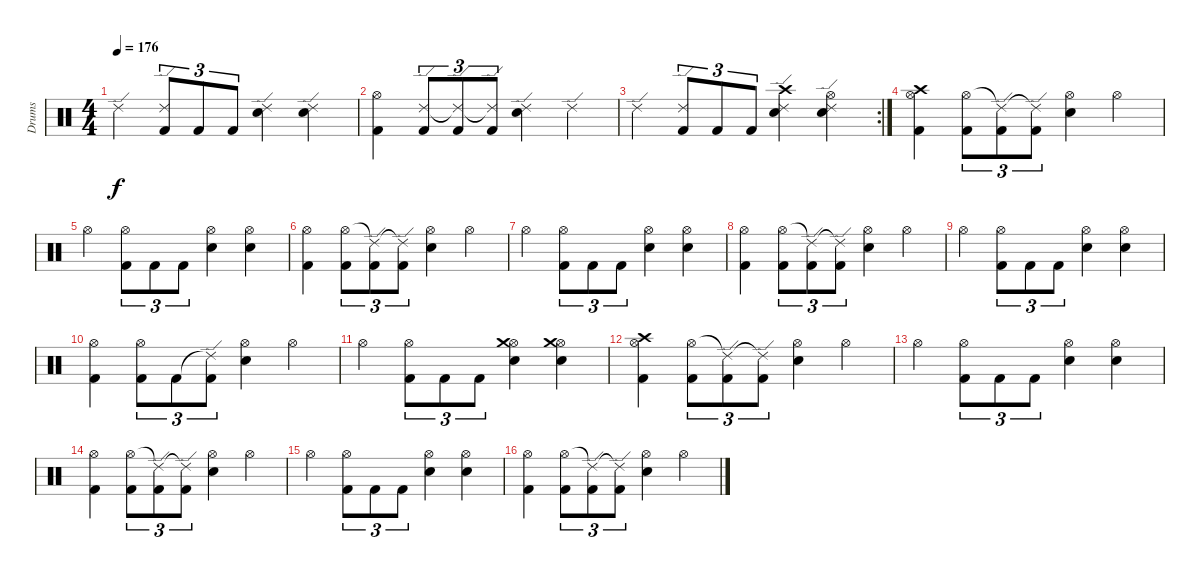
\track ("Drums" "Drums") {instrument percussion}
\staff {score}
\articulation defaults
\ts (4 4)
\tempo 176
\clef neutral
\ks c "Ride (edge) 2".4{dy f}
("Ride (edge) 2" "Kick (hit) 2").8{tu (3 2)} "Kick (hit) 2".8{tu (3 2)} "Kick (hit) 2".8{tu (3 2)} ("Ride (edge) 2" "Electric Snare (hit)").4 ("Ride (edge) 2" "Electric Snare (hit)").4 |
("Hi-Hat (open)" "Kick (hit) 2").4 ("Ride (edge) 2" "Kick (hit) 2").8{tu (3 2)} ("Ride (edge) 2"{t} "Kick (hit) 2").8{tu (3 2)} ("Ride (edge) 2"{t} "Kick (hit) 2").8{tu (3 2)} ("Ride (edge) 2" "Electric Snare (hit)").4 "Ride (edge) 2".4 |
\rc 2 "Ride (edge) 2".4
("Ride (edge) 2" "Kick (hit) 2").8{tu (3 2)} "Kick (hit) 2".8{tu (3 2)} "Kick (hit) 2".8{tu (3 2)} ("Ride (edge) 2" "Electric Snare (hit)" "Crash high (hit)").4 ("Ride (edge) 2" "Electric Snare (hit)" "Hi-Hat (open)").4 |
("Hi-Hat (open)" "Kick (hit) 2" "Crash high (hit)").4 ("Hi-Hat (open)" "Kick (hit) 2").8{tu (3 2)} ("Ride (edge) 2"{t} "Kick (hit) 2").8{tu (3 2)} ("Ride (edge) 2"{t} "Kick (hit) 2").8{tu (3 2)} ("Hi-Hat (open)" "Snare (hit) 2").4 "Hi-Hat (open)".4 |
"Hi-Hat (open)".4 ("Hi-Hat (open)" "Kick (hit) 2").8{tu (3 2)} "Kick (hit) 2".8{tu (3 2)} "Kick (hit) 2".8{tu (3 2)} ("Hi-Hat (open)" "Snare (hit) 2").4 ("Hi-Hat (open)" "Snare (hit) 2").4 |
("Hi-Hat (open)" "Kick (hit) 2").4 ("Hi-Hat (open)" "Kick (hit) 2").8{tu (3 2)} ("Ride (edge) 2"{t} "Kick (hit) 2").8{tu (3 2)} ("Ride (edge) 2"{t} "Kick (hit) 2").8{tu (3 2)} ("Hi-Hat (open)" "Snare (hit) 2").4 "Hi-Hat (open)".4 |
"Hi-Hat (open)".4 ("Hi-Hat (open)" "Kick (hit) 2").8{tu (3 2)} "Kick (hit) 2".8{tu (3 2)} "Kick (hit) 2".8{tu (3 2)} ("Hi-Hat (open)" "Snare (hit) 2").4 ("Hi-Hat (open)" "Snare (hit) 2").4 |
("Hi-Hat (open)" "Kick (hit) 2").4 ("Hi-Hat (open)" "Kick (hit) 2").8{tu (3 2)} ("Ride (edge) 2"{t} "Kick (hit) 2").8{tu (3 2)} ("Ride (edge) 2"{t} "Kick (hit) 2").8{tu (3 2)} ("Hi-Hat (open)" "Snare (hit) 2").4 "Hi-Hat (open)".4 |
"Hi-Hat (open)".4 ("Hi-Hat (open)" "Kick (hit) 2").8{tu (3 2)} "Kick (hit) 2".8{tu (3 2)} "Kick (hit) 2".8{tu (3 2)} ("Hi-Hat (open)" "Snare (hit) 2").4 ("Hi-Hat (open)" "Snare (hit) 2").4 |
("Hi-Hat (open)" "Kick (hit) 2").4 ("Hi-Hat (open)" "Kick (hit) 2").8{tu (3 2)} "Kick (hit) 2".8{tu (3 2)} ("Ride (edge) 2"{t} "Kick (hit) 2").8{tu (3 2)} ("Hi-Hat (open)" "Snare (hit) 2").4 "Hi-Hat (open)".4 |
"Hi-Hat (open)".4 ("Hi-Hat (open)" "Kick (hit) 2").8{tu (3 2)} "Kick (hit) 2".8{tu (3 2)} "Kick (hit) 2".8{tu (3 2)} ("Hi-Hat (open)" "Snare (hit) 2" "Crash medium (hit)").4 ("Hi-Hat (open)" "Snare (hit) 2" "Crash medium (hit)").4 |
("Hi-Hat (open)" "Kick (hit) 2" "Crash high (hit)").4 ("Hi-Hat (open)" "Kick (hit) 2").8{tu (3 2)} ("Ride (edge) 2"{t} "Kick (hit) 2").8{tu (3 2)} ("Ride (edge) 2"{t} "Kick (hit) 2").8{tu (3 2)} ("Hi-Hat (open)" "Snare (hit) 2").4 "Hi-Hat (open)".4 |
"Hi-Hat (open)".4 ("Hi-Hat (open)" "Kick (hit) 2").8{tu (3 2)} "Kick (hit) 2".8{tu (3 2)} "Kick (hit) 2".8{tu (3 2)} ("Hi-Hat (open)" "Snare (hit) 2").4 ("Hi-Hat (open)" "Snare (hit) 2").4 |
("Hi-Hat (open)" "Kick (hit) 2").4 ("Hi-Hat (open)" "Kick (hit) 2").8{tu (3 2)} ("Ride (edge) 2"{t} "Kick (hit) 2").8{tu (3 2)} ("Ride (edge) 2"{t} "Kick (hit) 2").8{tu (3 2)} ("Hi-Hat (open)" "Snare (hit) 2").4 "Hi-Hat (open)".4 |
"Hi-Hat (open)".4 ("Hi-Hat (open)" "Kick (hit) 2").8{tu (3 2)} "Kick (hit) 2".8{tu (3 2)} "Kick (hit) 2".8{tu (3 2)} ("Hi-Hat (open)" "Snare (hit) 2").4 ("Hi-Hat (open)" "Snare (hit) 2").4 |
("Hi-Hat (open)" "Kick (hit) 2").4 ("Hi-Hat (open)" "Kick (hit) 2").8{tu (3 2)} ("Ride (edge) 2"{t} "Kick (hit) 2").8{tu (3 2)} ("Ride (edge) 2"{t} "Kick (hit) 2").8{tu (3 2)} ("Hi-Hat (open)" "Snare (hit) 2").4 "Hi-Hat (open)".4
